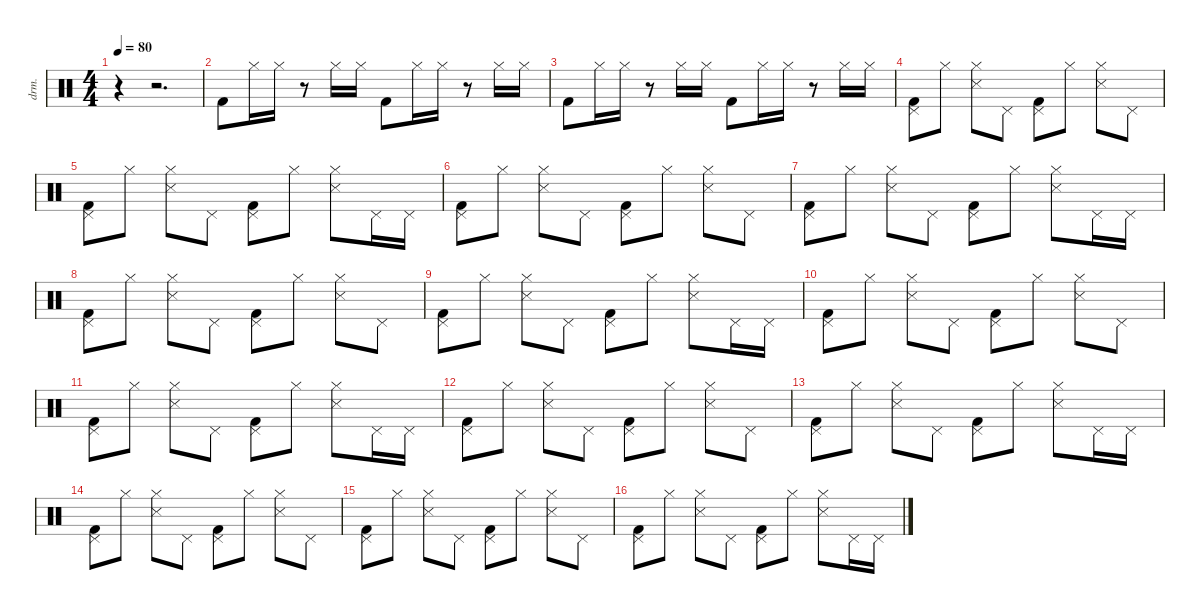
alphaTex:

\defaultSystemsLayout 4
\hideDynamics
\bracketExtendMode nobrackets
\otherSystemsTrackNameOrientation horizontal
\track ("Percussions / Batterie" "drm.") {instrument percussion}
\staff {score}
\articulation defaults
\ts (4 4)
\tempo 80
\clef neutral
\ks c
r.4{dy f beam Down} r.2{d beam Down} |
"Kick (hit) 2".8{beam Down} "Hi-Hat (closed)".16{beam Down} "Hi-Hat (closed)".16{beam Down} r.8{beam Down} "Hi-Hat (closed)".16{beam Down} "Hi-Hat (closed)".16{beam Down} "Kick (hit) 2".8{beam Down} "Hi-Hat (closed)".16{beam Down} "Hi-Hat (closed)".16{beam Down} r.8{beam Down} "Hi-Hat (closed)".16{beam Down} "Hi-Hat (closed)".16{beam Down} |
"Kick (hit) 2".8{beam Down} "Hi-Hat (closed)".16{beam Down} "Hi-Hat (closed)".16{beam Down} r.8{beam Down} "Hi-Hat (closed)".16{beam Down} "Hi-Hat (closed)".16{beam Down} "Kick (hit) 2".8{beam Down} "Hi-Hat (closed)".16{beam Down} "Hi-Hat (closed)".16{beam Down} r.8{beam Down} "Hi-Hat (closed)".16{beam Down} "Hi-Hat (closed)".16{beam Down} |
("Pedal Hi-Hat (hit)" "Kick (hit) 2").8{beam Down} "Hi-Hat (closed)".8{beam Down} ("Hi-Hat (closed)" "Snare (side stick) 3").8{beam Down} "Pedal Hi-Hat (hit)".8{beam Down} ("Pedal Hi-Hat (hit)" "Kick (hit) 2").8{beam Down} "Hi-Hat (closed)".8{beam Down} ("Hi-Hat (closed)" "Snare (side stick) 3").8{beam Down} "Pedal Hi-Hat (hit)".8{beam Down} |
("Pedal Hi-Hat (hit)" "Kick (hit) 2").8{beam Down} "Hi-Hat (closed)".8{beam Down} ("Hi-Hat (closed)" "Snare (side stick) 3").8{beam Down} "Pedal Hi-Hat (hit)".8{beam Down} ("Pedal Hi-Hat (hit)" "Kick (hit) 2").8{beam Down} "Hi-Hat (closed)".8{beam Down} ("Hi-Hat (closed)" "Snare (side stick) 3").8{beam Down} "Pedal Hi-Hat (hit)".16{beam Down} "Pedal Hi-Hat (hit)".16{beam Down} |
("Pedal Hi-Hat (hit)" "Kick (hit) 2").8{beam Down} "Hi-Hat (closed)".8{beam Down} ("Hi-Hat (closed)" "Snare (side stick) 3").8{beam Down} "Pedal Hi-Hat (hit)".8{beam Down} ("Pedal Hi-Hat (hit)" "Kick (hit) 2").8{beam Down} "Hi-Hat (closed)".8{beam Down} ("Hi-Hat (closed)" "Snare (side stick) 3").8{beam Down} "Pedal Hi-Hat (hit)".8{beam Down} |
("Pedal Hi-Hat (hit)" "Kick (hit) 2").8{beam Down} "Hi-Hat (closed)".8{beam Down} ("Hi-Hat (closed)" "Snare (side stick) 3").8{beam Down} "Pedal Hi-Hat (hit)".8{beam Down} ("Pedal Hi-Hat (hit)" "Kick (hit) 2").8{beam Down} "Hi-Hat (closed)".8{beam Down} ("Hi-Hat (closed)" "Snare (side stick) 3").8{beam Down} "Pedal Hi-Hat (hit)".16{beam Down} "Pedal Hi-Hat (hit)".16{beam Down} |
("Pedal Hi-Hat (hit)" "Kick (hit) 2").8{beam Down} "Hi-Hat (closed)".8{beam Down} ("Hi-Hat (closed)" "Snare (side stick) 3").8{beam Down} "Pedal Hi-Hat (hit)".8{beam Down} ("Pedal Hi-Hat (hit)" "Kick (hit) 2").8{beam Down} "Hi-Hat (closed)".8{beam Down} ("Hi-Hat (closed)" "Snare (side stick) 3").8{beam Down} "Pedal Hi-Hat (hit)".8{beam Down} |
("Pedal Hi-Hat (hit)" "Kick (hit) 2").8{beam Down} "Hi-Hat (closed)".8{beam Down} ("Hi-Hat (closed)" "Snare (side stick) 3").8{beam Down} "Pedal Hi-Hat (hit)".8{beam Down} ("Pedal Hi-Hat (hit)" "Kick (hit) 2").8{beam Down} "Hi-Hat (closed)".8{beam Down} ("Hi-Hat (closed)" "Snare (side stick) 3").8{beam Down} "Pedal Hi-Hat (hit)".16{beam Down} "Pedal Hi-Hat (hit)".16{beam Down} |
("Pedal Hi-Hat (hit)" "Kick (hit) 2").8{beam Down} "Hi-Hat (closed)".8{beam Down} ("Hi-Hat (closed)" "Snare (side stick) 3").8{beam Down} "Pedal Hi-Hat (hit)".8{beam Down} ("Pedal Hi-Hat (hit)" "Kick (hit) 2").8{beam Down} "Hi-Hat (closed)".8{beam Down} ("Hi-Hat (closed)" "Snare (side stick) 3").8{beam Down} "Pedal Hi-Hat (hit)".8{beam Down} |
("Pedal Hi-Hat (hit)" "Kick (hit) 2").8{beam Down} "Hi-Hat (closed)".8{beam Down} ("Hi-Hat (closed)" "Snare (side stick) 3").8{beam Down} "Pedal Hi-Hat (hit)".8{beam Down} ("Pedal Hi-Hat (hit)" "Kick (hit) 2").8{beam Down} "Hi-Hat (closed)".8{beam Down} ("Hi-Hat (closed)" "Snare (side stick) 3").8{beam Down} "Pedal Hi-Hat (hit)".16{beam Down} "Pedal Hi-Hat (hit)".16{beam Down} |
("Pedal Hi-Hat (hit)" "Kick (hit) 2").8{beam Down} "Hi-Hat (closed)".8{beam Down} ("Hi-Hat (closed)" "Snare (side stick) 3").8{beam Down} "Pedal Hi-Hat (hit)".8{beam Down} ("Pedal Hi-Hat (hit)" "Kick (hit) 2").8{beam Down} "Hi-Hat (closed)".8{beam Down} ("Hi-Hat (closed)" "Snare (side stick) 3").8{beam Down} "Pedal Hi-Hat (hit)".8{beam Down} |
("Pedal Hi-Hat (hit)" "Kick (hit) 2").8{beam Down} "Hi-Hat (closed)".8{beam Down} ("Hi-Hat (closed)" "Snare (side stick) 3").8{beam Down} "Pedal Hi-Hat (hit)".8{beam Down} ("Pedal Hi-Hat (hit)" "Kick (hit) 2").8{beam Down} "Hi-Hat (closed)".8{beam Down} ("Hi-Hat (closed)" "Snare (side stick) 3").8{beam Down} "Pedal Hi-Hat (hit)".16{beam Down} "Pedal Hi-Hat (hit)".16{beam Down} |
("Pedal Hi-Hat (hit)" "Kick (hit) 2").8{beam Down} "Hi-Hat (closed)".8{beam Down} ("Hi-Hat (closed)" "Snare (side stick) 3").8{beam Down} "Pedal Hi-Hat (hit)".8{beam Down} ("Pedal Hi-Hat (hit)" "Kick (hit) 2").8{beam Down} "Hi-Hat (closed)".8{beam Down} ("Hi-Hat (closed)" "Snare (side stick) 3").8{beam Down} "Pedal Hi-Hat (hit)".8{beam Down} |
("Pedal Hi-Hat (hit)" "Kick (hit) 2").8{beam Down} "Hi-Hat (closed)".8{beam Down} ("Hi-Hat (closed)" "Snare (side stick) 3").8{beam Down} "Pedal Hi-Hat (hit)".8{beam Down} ("Pedal Hi-Hat (hit)" "Kick (hit) 2").8{beam Down} "Hi-Hat (closed)".8{beam Down} ("Hi-Hat (closed)" "Snare (side stick) 3").8{beam Down} "Pedal Hi-Hat (hit)".8{beam Down} |
("Pedal Hi-Hat (hit)" "Kick (hit) 2").8{beam Down} "Hi-Hat (closed)".8{beam Down} ("Hi-Hat (closed)" "Snare (side stick) 3").8{beam Down} "Pedal Hi-Hat (hit)".8{beam Down} ("Pedal Hi-Hat (hit)" "Kick (hit) 2").8{beam Down} "Hi-Hat (closed)".8{beam Down} ("Hi-Hat (closed)" "Snare (side stick) 3").8{beam Down} "Pedal Hi-Hat (hit)".16{beam Down} "Pedal Hi-Hat (hit)".16{beam Down}
